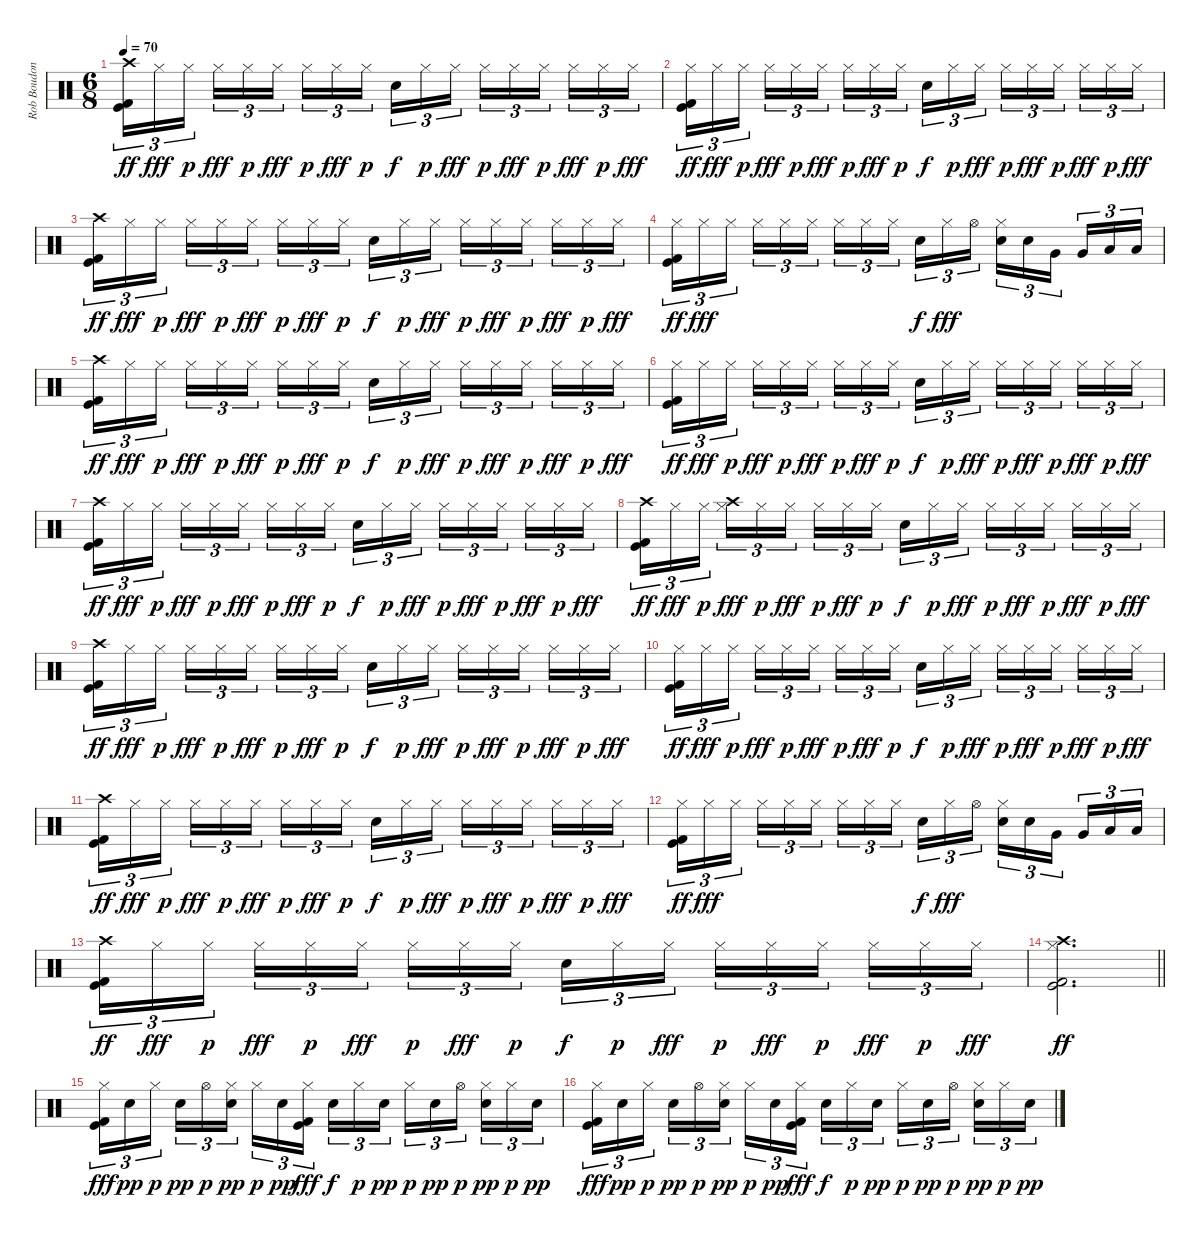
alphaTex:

\track ("Rob Boudon [Drums]" "Rob Boudon") {instrument percussion}
\staff {score}
\articulation defaults
\ts (6 8)
\tempo 70
\clef neutral
\ks c
("Crash high (hit)" "Kick (hit) 2" "Kick (hit)").16{tu (3 2) dy ff} "Hi-Hat (closed)".16{tu (3 2) dy fff} "Hi-Hat (closed)".16{tu (3 2) dy p beam splitsecondary} "Hi-Hat (closed)".16{tu (3 2) dy fff} "Hi-Hat (closed)".16{tu (3 2) dy p} "Hi-Hat (closed)".16{tu (3 2) dy fff beam splitsecondary} "Hi-Hat (closed)".16{tu (3 2) dy p} "Hi-Hat (closed)".16{tu (3 2) dy fff} "Hi-Hat (closed)".16{tu (3 2) dy p} "Electric Snare (hit)".16{tu (3 2) dy f} "Hi-Hat (closed)".16{tu (3 2) dy p} "Hi-Hat (closed)".16{tu (3 2) dy fff beam splitsecondary} "Hi-Hat (closed)".16{tu (3 2) dy p} "Hi-Hat (closed)".16{tu (3 2) dy fff} "Hi-Hat (closed)".16{tu (3 2) dy p beam splitsecondary} "Hi-Hat (closed)".16{tu (3 2) dy fff} "Hi-Hat (closed)".16{tu (3 2) dy p} "Hi-Hat (closed)".16{tu (3 2) dy fff} |
("Hi-Hat (closed)" "Kick (hit) 2" "Kick (hit)").16{tu (3 2) dy ff} "Hi-Hat (closed)".16{tu (3 2) dy fff} "Hi-Hat (closed)".16{tu (3 2) dy p beam splitsecondary} "Hi-Hat (closed)".16{tu (3 2) dy fff} "Hi-Hat (closed)".16{tu (3 2) dy p} "Hi-Hat (closed)".16{tu (3 2) dy fff beam splitsecondary} "Hi-Hat (closed)".16{tu (3 2) dy p} "Hi-Hat (closed)".16{tu (3 2) dy fff} "Hi-Hat (closed)".16{tu (3 2) dy p} "Electric Snare (hit)".16{tu (3 2) dy f} "Hi-Hat (closed)".16{tu (3 2) dy p} "Hi-Hat (closed)".16{tu (3 2) dy fff beam splitsecondary} "Hi-Hat (closed)".16{tu (3 2) dy p} "Hi-Hat (closed)".16{tu (3 2) dy fff} "Hi-Hat (closed)".16{tu (3 2) dy p beam splitsecondary} "Hi-Hat (closed)".16{tu (3 2) dy fff} "Hi-Hat (closed)".16{tu (3 2) dy p} "Hi-Hat (closed)".16{tu (3 2) dy fff} |
("Crash high (hit)" "Kick (hit) 2" "Kick (hit)").16{tu (3 2) dy ff} "Hi-Hat (closed)".16{tu (3 2) dy fff} "Hi-Hat (closed)".16{tu (3 2) dy p beam splitsecondary} "Hi-Hat (closed)".16{tu (3 2) dy fff} "Hi-Hat (closed)".16{tu (3 2) dy p} "Hi-Hat (closed)".16{tu (3 2) dy fff beam splitsecondary} "Hi-Hat (closed)".16{tu (3 2) dy p} "Hi-Hat (closed)".16{tu (3 2) dy fff} "Hi-Hat (closed)".16{tu (3 2) dy p} "Electric Snare (hit)".16{tu (3 2) dy f} "Hi-Hat (closed)".16{tu (3 2) dy p} "Hi-Hat (closed)".16{tu (3 2) dy fff beam splitsecondary} "Hi-Hat (closed)".16{tu (3 2) dy p} "Hi-Hat (closed)".16{tu (3 2) dy fff} "Hi-Hat (closed)".16{tu (3 2) dy p beam splitsecondary} "Hi-Hat (closed)".16{tu (3 2) dy fff} "Hi-Hat (closed)".16{tu (3 2) dy p} "Hi-Hat (closed)".16{tu (3 2) dy fff} |
("Hi-Hat (closed)" "Kick (hit) 2" "Kick (hit)").16{tu (3 2) dy ff} "Hi-Hat (closed)".16{tu (3 2) dy fff} "Hi-Hat (closed)".16{tu (3 2) beam splitsecondary} "Hi-Hat (closed)".16{tu (3 2)} "Hi-Hat (closed)".16{tu (3 2)} "Hi-Hat (closed)".16{tu (3 2) beam splitsecondary} "Hi-Hat (closed)".16{tu (3 2)} "Hi-Hat (closed)".16{tu (3 2)} "Hi-Hat (closed)".16{tu (3 2)} "Electric Snare (hit)".16{tu (3 2) dy f} "Hi-Hat (closed)".16{tu (3 2) dy fff} "Hi-Hat (open)".16{tu (3 2) beam splitsecondary} ("Hi-Hat (closed)" "Electric Snare (hit)").16{tu (3 2)} "Electric Snare (hit)".16{tu (3 2)} "Very Low Tom (hit)".16{tu (3 2) beam splitsecondary} "Very Low Tom (hit)".16{tu (3 2)} "Low Tom (hit)".16{tu (3 2)} "Low Tom (hit)".16{tu (3 2)} |
("Crash high (hit)" "Kick (hit) 2" "Kick (hit)").16{tu (3 2) dy ff} "Hi-Hat (closed)".16{tu (3 2) dy fff} "Hi-Hat (closed)".16{tu (3 2) dy p beam splitsecondary} "Hi-Hat (closed)".16{tu (3 2) dy fff} "Hi-Hat (closed)".16{tu (3 2) dy p} "Hi-Hat (closed)".16{tu (3 2) dy fff beam splitsecondary} "Hi-Hat (closed)".16{tu (3 2) dy p} "Hi-Hat (closed)".16{tu (3 2) dy fff} "Hi-Hat (closed)".16{tu (3 2) dy p} "Electric Snare (hit)".16{tu (3 2) dy f} "Hi-Hat (closed)".16{tu (3 2) dy p} "Hi-Hat (closed)".16{tu (3 2) dy fff beam splitsecondary} "Hi-Hat (closed)".16{tu (3 2) dy p} "Hi-Hat (closed)".16{tu (3 2) dy fff} "Hi-Hat (closed)".16{tu (3 2) dy p beam splitsecondary} "Hi-Hat (closed)".16{tu (3 2) dy fff} "Hi-Hat (closed)".16{tu (3 2) dy p} "Hi-Hat (closed)".16{tu (3 2) dy fff} |
("Hi-Hat (closed)" "Kick (hit) 2" "Kick (hit)").16{tu (3 2) dy ff} "Hi-Hat (closed)".16{tu (3 2) dy fff} "Hi-Hat (closed)".16{tu (3 2) dy p beam splitsecondary} "Hi-Hat (closed)".16{tu (3 2) dy fff} "Hi-Hat (closed)".16{tu (3 2) dy p} "Hi-Hat (closed)".16{tu (3 2) dy fff beam splitsecondary} "Hi-Hat (closed)".16{tu (3 2) dy p} "Hi-Hat (closed)".16{tu (3 2) dy fff} "Hi-Hat (closed)".16{tu (3 2) dy p} "Electric Snare (hit)".16{tu (3 2) dy f} "Hi-Hat (closed)".16{tu (3 2) dy p} "Hi-Hat (closed)".16{tu (3 2) dy fff beam splitsecondary} "Hi-Hat (closed)".16{tu (3 2) dy p} "Hi-Hat (closed)".16{tu (3 2) dy fff} "Hi-Hat (closed)".16{tu (3 2) dy p beam splitsecondary} "Hi-Hat (closed)".16{tu (3 2) dy fff} "Hi-Hat (closed)".16{tu (3 2) dy p} "Hi-Hat (closed)".16{tu (3 2) dy fff} |
("Crash high (hit)" "Kick (hit) 2" "Kick (hit)").16{tu (3 2) dy ff} "Hi-Hat (closed)".16{tu (3 2) dy fff} "Hi-Hat (closed)".16{tu (3 2) dy p beam splitsecondary} "Hi-Hat (closed)".16{tu (3 2) dy fff} "Hi-Hat (closed)".16{tu (3 2) dy p} "Hi-Hat (closed)".16{tu (3 2) dy fff beam splitsecondary} "Hi-Hat (closed)".16{tu (3 2) dy p} "Hi-Hat (closed)".16{tu (3 2) dy fff} "Hi-Hat (closed)".16{tu (3 2) dy p} "Electric Snare (hit)".16{tu (3 2) dy f} "Hi-Hat (closed)".16{tu (3 2) dy p} "Hi-Hat (closed)".16{tu (3 2) dy fff beam splitsecondary} "Hi-Hat (closed)".16{tu (3 2) dy p} "Hi-Hat (closed)".16{tu (3 2) dy fff} "Hi-Hat (closed)".16{tu (3 2) dy p beam splitsecondary} "Hi-Hat (closed)".16{tu (3 2) dy fff} "Hi-Hat (closed)".16{tu (3 2) dy p} "Hi-Hat (closed)".16{tu (3 2) dy fff} |
("Crash high (hit)" "Kick (hit) 2" "Kick (hit)").16{tu (3 2) dy ff} "Hi-Hat (closed)".16{tu (3 2) dy fff} "Hi-Hat (closed)".16{tu (3 2) dy p beam splitsecondary} ("Crash high (hit)" "Hi-Hat (closed)").16{tu (3 2) dy fff} "Hi-Hat (closed)".16{tu (3 2) dy p} "Hi-Hat (closed)".16{tu (3 2) dy fff beam splitsecondary} "Hi-Hat (closed)".16{tu (3 2) dy p} "Hi-Hat (closed)".16{tu (3 2) dy fff} "Hi-Hat (closed)".16{tu (3 2) dy p} "Electric Snare (hit)".16{tu (3 2) dy f} "Hi-Hat (closed)".16{tu (3 2) dy p} "Hi-Hat (closed)".16{tu (3 2) dy fff beam splitsecondary} "Hi-Hat (closed)".16{tu (3 2) dy p} "Hi-Hat (closed)".16{tu (3 2) dy fff} "Hi-Hat (closed)".16{tu (3 2) dy p beam splitsecondary} "Hi-Hat (closed)".16{tu (3 2) dy fff} "Hi-Hat (closed)".16{tu (3 2) dy p} "Hi-Hat (closed)".16{tu (3 2) dy fff} |
("Crash high (hit)" "Kick (hit) 2" "Kick (hit)").16{tu (3 2) dy ff} "Hi-Hat (closed)".16{tu (3 2) dy fff} "Hi-Hat (closed)".16{tu (3 2) dy p beam splitsecondary} "Hi-Hat (closed)".16{tu (3 2) dy fff} "Hi-Hat (closed)".16{tu (3 2) dy p} "Hi-Hat (closed)".16{tu (3 2) dy fff beam splitsecondary} "Hi-Hat (closed)".16{tu (3 2) dy p} "Hi-Hat (closed)".16{tu (3 2) dy fff} "Hi-Hat (closed)".16{tu (3 2) dy p} "Electric Snare (hit)".16{tu (3 2) dy f} "Hi-Hat (closed)".16{tu (3 2) dy p} "Hi-Hat (closed)".16{tu (3 2) dy fff beam splitsecondary} "Hi-Hat (closed)".16{tu (3 2) dy p} "Hi-Hat (closed)".16{tu (3 2) dy fff} "Hi-Hat (closed)".16{tu (3 2) dy p beam splitsecondary} "Hi-Hat (closed)".16{tu (3 2) dy fff} "Hi-Hat (closed)".16{tu (3 2) dy p} "Hi-Hat (closed)".16{tu (3 2) dy fff} |
("Hi-Hat (closed)" "Kick (hit) 2" "Kick (hit)").16{tu (3 2) dy ff} "Hi-Hat (closed)".16{tu (3 2) dy fff} "Hi-Hat (closed)".16{tu (3 2) dy p beam splitsecondary} "Hi-Hat (closed)".16{tu (3 2) dy fff} "Hi-Hat (closed)".16{tu (3 2) dy p} "Hi-Hat (closed)".16{tu (3 2) dy fff beam splitsecondary} "Hi-Hat (closed)".16{tu (3 2) dy p} "Hi-Hat (closed)".16{tu (3 2) dy fff} "Hi-Hat (closed)".16{tu (3 2) dy p} "Electric Snare (hit)".16{tu (3 2) dy f} "Hi-Hat (closed)".16{tu (3 2) dy p} "Hi-Hat (closed)".16{tu (3 2) dy fff beam splitsecondary} "Hi-Hat (closed)".16{tu (3 2) dy p} "Hi-Hat (closed)".16{tu (3 2) dy fff} "Hi-Hat (closed)".16{tu (3 2) dy p beam splitsecondary} "Hi-Hat (closed)".16{tu (3 2) dy fff} "Hi-Hat (closed)".16{tu (3 2) dy p} "Hi-Hat (closed)".16{tu (3 2) dy fff} |
("Crash high (hit)" "Kick (hit) 2" "Kick (hit)").16{tu (3 2) dy ff} "Hi-Hat (closed)".16{tu (3 2) dy fff} "Hi-Hat (closed)".16{tu (3 2) dy p beam splitsecondary} "Hi-Hat (closed)".16{tu (3 2) dy fff} "Hi-Hat (closed)".16{tu (3 2) dy p} "Hi-Hat (closed)".16{tu (3 2) dy fff beam splitsecondary} "Hi-Hat (closed)".16{tu (3 2) dy p} "Hi-Hat (closed)".16{tu (3 2) dy fff} "Hi-Hat (closed)".16{tu (3 2) dy p} "Electric Snare (hit)".16{tu (3 2) dy f} "Hi-Hat (closed)".16{tu (3 2) dy p} "Hi-Hat (closed)".16{tu (3 2) dy fff beam splitsecondary} "Hi-Hat (closed)".16{tu (3 2) dy p} "Hi-Hat (closed)".16{tu (3 2) dy fff} "Hi-Hat (closed)".16{tu (3 2) dy p beam splitsecondary} "Hi-Hat (closed)".16{tu (3 2) dy fff} "Hi-Hat (closed)".16{tu (3 2) dy p} "Hi-Hat (closed)".16{tu (3 2) dy fff} |
("Hi-Hat (closed)" "Kick (hit) 2" "Kick (hit)").16{tu (3 2) dy ff} "Hi-Hat (closed)".16{tu (3 2) dy fff} "Hi-Hat (closed)".16{tu (3 2) beam splitsecondary} "Hi-Hat (closed)".16{tu (3 2)} "Hi-Hat (closed)".16{tu (3 2)} "Hi-Hat (closed)".16{tu (3 2) beam splitsecondary} "Hi-Hat (closed)".16{tu (3 2)} "Hi-Hat (closed)".16{tu (3 2)} "Hi-Hat (closed)".16{tu (3 2)} "Electric Snare (hit)".16{tu (3 2) dy f} "Hi-Hat (closed)".16{tu (3 2) dy fff} "Hi-Hat (open)".16{tu (3 2) beam splitsecondary} ("Hi-Hat (closed)" "Electric Snare (hit)").16{tu (3 2)} "Electric Snare (hit)".16{tu (3 2)} "Very Low Tom (hit)".16{tu (3 2) beam splitsecondary} "Very Low Tom (hit)".16{tu (3 2)} "Low Tom (hit)".16{tu (3 2)} "Low Tom (hit)".16{tu (3 2)} |
("Crash high (hit)" "Kick (hit) 2" "Kick (hit)").16{tu (3 2) dy ff} "Hi-Hat (closed)".16{tu (3 2) dy fff} "Hi-Hat (closed)".16{tu (3 2) dy p beam splitsecondary} "Hi-Hat (closed)".16{tu (3 2) dy fff} "Hi-Hat (closed)".16{tu (3 2) dy p} "Hi-Hat (closed)".16{tu (3 2) dy fff beam splitsecondary} "Hi-Hat (closed)".16{tu (3 2) dy p} "Hi-Hat (closed)".16{tu (3 2) dy fff} "Hi-Hat (closed)".16{tu (3 2) dy p} "Electric Snare (hit)".16{tu (3 2) dy f} "Hi-Hat (closed)".16{tu (3 2) dy p} "Hi-Hat (closed)".16{tu (3 2) dy fff beam splitsecondary} "Hi-Hat (closed)".16{tu (3 2) dy p} "Hi-Hat (closed)".16{tu (3 2) dy fff} "Hi-Hat (closed)".16{tu (3 2) dy p beam splitsecondary} "Hi-Hat (closed)".16{tu (3 2) dy fff} "Hi-Hat (closed)".16{tu (3 2) dy p} "Hi-Hat (closed)".16{tu (3 2) dy fff} |
\barLineRight lightlight
("Crash high (hit)" "Hi-Hat (closed)" "Kick (hit)" "Kick (hit) 2").2{d dy ff} |
("Hi-Hat (closed)" "Kick (hit)" "Kick (hit) 2").16{tu (3 2) dy fff} "Electric Snare (hit)".16{tu (3 2) dy pp} "Hi-Hat (closed)".16{tu (3 2) dy p beam splitsecondary} "Electric Snare (hit)".16{tu (3 2) dy pp} "Hi-Hat (open)".16{tu (3 2) dy p} ("Hi-Hat (closed)" "Electric Snare (hit)").16{tu (3 2) dy pp beam splitsecondary} "Hi-Hat (closed)".16{tu (3 2) dy p} "Electric Snare (hit)".16{tu (3 2) dy pp} ("Hi-Hat (closed)" "Kick (hit)" "Kick (hit) 2").16{tu (3 2) dy fff} "Electric Snare (hit)".16{tu (3 2) dy f} "Hi-Hat (closed)".16{tu (3 2) dy p} "Electric Snare (hit)".16{tu (3 2) dy pp beam splitsecondary} "Hi-Hat (closed)".16{tu (3 2) dy p} "Electric Snare (hit)".16{tu (3 2) dy pp} "Hi-Hat (open)".16{tu (3 2) dy p beam splitsecondary} ("Hi-Hat (closed)" "Electric Snare (hit)").16{tu (3 2) dy pp} "Hi-Hat (closed)".16{tu (3 2) dy p} "Electric Snare (hit)".16{tu (3 2) dy pp} |
("Hi-Hat (closed)" "Kick (hit)" "Kick (hit) 2").16{tu (3 2) dy fff} "Electric Snare (hit)".16{tu (3 2) dy pp} "Hi-Hat (closed)".16{tu (3 2) dy p beam splitsecondary} "Electric Snare (hit)".16{tu (3 2) dy pp} "Hi-Hat (open)".16{tu (3 2) dy p} ("Hi-Hat (closed)" "Electric Snare (hit)").16{tu (3 2) dy pp beam splitsecondary} "Hi-Hat (closed)".16{tu (3 2) dy p} "Electric Snare (hit)".16{tu (3 2) dy pp} ("Hi-Hat (closed)" "Kick (hit)" "Kick (hit) 2").16{tu (3 2) dy fff} "Electric Snare (hit)".16{tu (3 2) dy f} "Hi-Hat (closed)".16{tu (3 2) dy p} "Electric Snare (hit)".16{tu (3 2) dy pp beam splitsecondary} "Hi-Hat (closed)".16{tu (3 2) dy p} "Electric Snare (hit)".16{tu (3 2) dy pp} "Hi-Hat (open)".16{tu (3 2) dy p beam splitsecondary} ("Hi-Hat (closed)" "Electric Snare (hit)").16{tu (3 2) dy pp} "Hi-Hat (closed)".16{tu (3 2) dy p} "Electric Snare (hit)".16{tu (3 2) dy pp}
